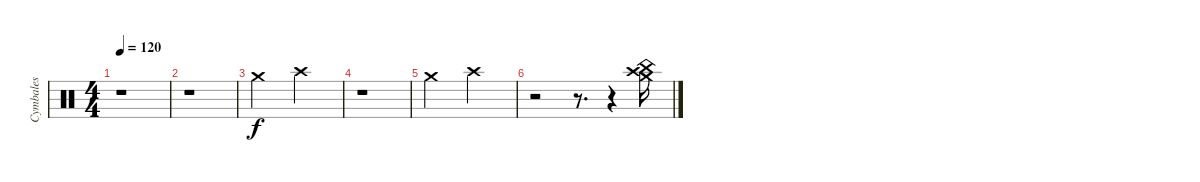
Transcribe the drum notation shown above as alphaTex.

\track ("Cymbales" "Cymbales") {instrument percussion}
\staff {score}
\articulation defaults
\ts (4 4)
\tempo 120
\clef neutral
\ks c
r.1{dy f} |
r.1 |
"Crash medium (hit)".2 "Crash high (hit)".2 |
r.1 |
"Crash medium (hit)".2 "Crash high (hit)".2 |
r.2 r.8{d} r.4 ("Crash high (hit)" "China (hit)" "Crash medium (hit)").16
